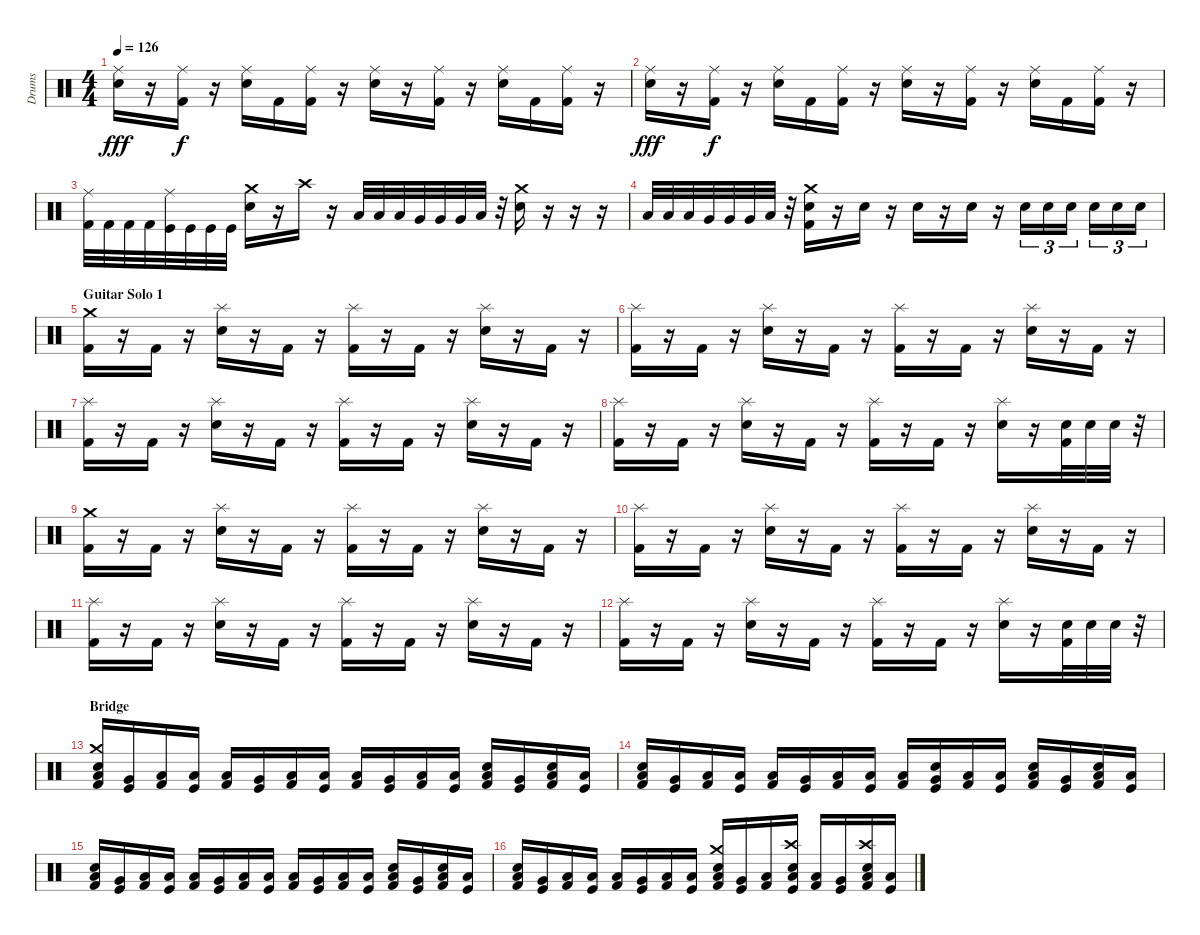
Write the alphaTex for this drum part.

\track ("Drums" "Drums") {instrument percussion}
\staff {score}
\articulation defaults
\ts (4 4)
\tempo 126
\clef neutral
\ks c
("Ride (middle)" "Snare (hit) 2").16{dy fff} r.16 ("Ride (middle)" "Kick (hit) 2").16{dy f} r.16 ("Ride (middle)" "Snare (hit) 2").16 "Kick (hit) 2".16 ("Ride (middle)" "Kick (hit) 2").16 r.16 ("Ride (middle)" "Snare (hit) 2").16 r.16 ("Ride (middle)" "Kick (hit) 2").16 r.16 ("Ride (middle)" "Snare (hit) 2").16 "Kick (hit) 2".16 ("Ride (middle)" "Kick (hit) 2").16 r.16 |
("Ride (middle)" "Snare (hit) 2").16{dy fff} r.16 ("Ride (middle)" "Kick (hit) 2").16{dy f} r.16 ("Ride (middle)" "Snare (hit) 2").16 "Kick (hit) 2".16 ("Ride (middle)" "Kick (hit) 2").16 r.16 ("Ride (middle)" "Snare (hit) 2").16 r.16 ("Ride (middle)" "Kick (hit) 2").16 r.16 ("Ride (middle)" "Snare (hit) 2").16 "Kick (hit) 2".16 ("Ride (middle)" "Kick (hit) 2").16 r.16 |
("Ride (middle)" "Kick (hit) 2").32 "Kick (hit) 2".32 "Kick (hit) 2".32 "Kick (hit) 2".32 ("Ride (middle)" "Kick (hit)").32 "Kick (hit)".32 "Kick (hit)".32 "Kick (hit)".32 ("Crash medium (hit)" "Snare (hit) 2").16 r.16 "Crash high (hit)".16 r.16 "Low Tom (hit)".32 "Low Tom (hit)".32 "Low Tom (hit)".32 "Very Low Tom (hit)".32 "Very Low Tom (hit)".32 "Very Low Tom (hit)".32 "Low Floor Tom (hit)".32 r.32 ("Crash medium (hit)" "Snare (hit) 2").16 r.16 r.16 r.16 |
"Low Tom (hit)".32 "Low Tom (hit)".32 "Low Tom (hit)".32 "Very Low Tom (hit)".32 "Very Low Tom (hit)".32 "Very Low Tom (hit)".32 "Low Floor Tom (hit)".32 r.32 ("Crash medium (hit)" "Snare (hit) 2" "Kick (hit) 2").16 r.16 "Snare (hit) 2".16 r.16 "Snare (hit) 2".16 r.16 "Snare (hit) 2".16 r.16 "Snare (hit) 2".16{tu (3 2)} "Snare (hit) 2".16{tu (3 2)} "Snare (hit) 2".16{tu (3 2)} "Snare (hit) 2".16{tu (3 2)} "Snare (hit) 2".16{tu (3 2)} "Snare (hit) 2".16{tu (3 2)} |
\section ("" "Guitar Solo 1")
("Crash medium (hit)" "Kick (hit) 2").16 r.16 "Kick (hit) 2".16 r.16 ("Splash (hit)" "Snare (hit) 2").16 r.16 "Kick (hit) 2".16 r.16 ("Splash (hit)" "Kick (hit) 2").16 r.16 "Kick (hit) 2".16 r.16 ("Splash (hit)" "Snare (hit) 2").16 r.16 "Kick (hit) 2".16 r.16 |
("Splash (hit)" "Kick (hit) 2").16 r.16 "Kick (hit) 2".16 r.16 ("Splash (hit)" "Snare (hit) 2").16 r.16 "Kick (hit) 2".16 r.16 ("Splash (hit)" "Kick (hit) 2").16 r.16 "Kick (hit) 2".16 r.16 ("Splash (hit)" "Snare (hit) 2").16 r.16 "Kick (hit) 2".16 r.16 |
("Splash (hit)" "Kick (hit) 2").16 r.16 "Kick (hit) 2".16 r.16 ("Splash (hit)" "Snare (hit) 2").16 r.16 "Kick (hit) 2".16 r.16 ("Splash (hit)" "Kick (hit) 2").16 r.16 "Kick (hit) 2".16 r.16 ("Splash (hit)" "Snare (hit) 2").16 r.16 "Kick (hit) 2".16 r.16 |
("Splash (hit)" "Kick (hit) 2").16 r.16 "Kick (hit) 2".16 r.16 ("Splash (hit)" "Snare (hit) 2").16 r.16 "Kick (hit) 2".16 r.16 ("Splash (hit)" "Kick (hit) 2").16 r.16 "Kick (hit) 2".16 r.16 ("Splash (hit)" "Snare (hit) 2").16 r.16 ("Snare (hit) 2" "Kick (hit) 2").32 "Snare (hit) 2".32 "Snare (hit) 2".32 r.32 |
("Crash medium (hit)" "Kick (hit) 2").16 r.16 "Kick (hit) 2".16 r.16 ("Splash (hit)" "Snare (hit) 2").16 r.16 "Kick (hit) 2".16 r.16 ("Splash (hit)" "Kick (hit) 2").16 r.16 "Kick (hit) 2".16 r.16 ("Splash (hit)" "Snare (hit) 2").16 r.16 "Kick (hit) 2".16 r.16 |
("Splash (hit)" "Kick (hit) 2").16 r.16 "Kick (hit) 2".16 r.16 ("Splash (hit)" "Snare (hit) 2").16 r.16 "Kick (hit) 2".16 r.16 ("Splash (hit)" "Kick (hit) 2").16 r.16 "Kick (hit) 2".16 r.16 ("Splash (hit)" "Snare (hit) 2").16 r.16 "Kick (hit) 2".16 r.16 |
("Splash (hit)" "Kick (hit) 2").16 r.16 "Kick (hit) 2".16 r.16 ("Splash (hit)" "Snare (hit) 2").16 r.16 "Kick (hit) 2".16 r.16 ("Splash (hit)" "Kick (hit) 2").16 r.16 "Kick (hit) 2".16 r.16 ("Splash (hit)" "Snare (hit) 2").16 r.16 "Kick (hit) 2".16 r.16 |
("Splash (hit)" "Kick (hit) 2").16 r.16 "Kick (hit) 2".16 r.16 ("Splash (hit)" "Snare (hit) 2").16 r.16 "Kick (hit) 2".16 r.16 ("Splash (hit)" "Kick (hit) 2").16 r.16 "Kick (hit) 2".16 r.16 ("Splash (hit)" "Snare (hit) 2").16 r.16 ("Snare (hit) 2" "Kick (hit) 2").32 "Snare (hit) 2".32 "Snare (hit) 2".32 r.32 |
\section ("" "Bridge")
("Crash medium (hit)" "Low Tom (hit)" "Snare (hit) 2" "Kick (hit) 2").16 ("Very Low Tom (hit)" "Kick (hit)").16 ("Low Floor Tom (hit)" "Kick (hit) 2").16 ("Low Floor Tom (hit)" "Kick (hit)").16 ("Low Tom (hit)" "Kick (hit) 2").16 ("Very Low Tom (hit)" "Kick (hit)").16 ("Low Floor Tom (hit)" "Kick (hit) 2").16 ("Low Floor Tom (hit)" "Kick (hit)").16 ("Low Tom (hit)" "Kick (hit) 2").16 ("Very Low Tom (hit)" "Kick (hit)").16 ("Low Floor Tom (hit)" "Kick (hit) 2").16 ("Low Floor Tom (hit)" "Kick (hit)").16 ("Low Tom (hit)" "Snare (hit) 2" "Kick (hit) 2").16 ("Very Low Tom (hit)" "Kick (hit)").16 ("Low Floor Tom (hit)" "Snare (hit) 2" "Kick (hit) 2").16 ("Low Floor Tom (hit)" "Kick (hit)").16 |
("Low Tom (hit)" "Snare (hit) 2" "Kick (hit) 2").16 ("Very Low Tom (hit)" "Kick (hit)").16 ("Low Floor Tom (hit)" "Kick (hit) 2").16 ("Low Floor Tom (hit)" "Kick (hit)").16 ("Low Tom (hit)" "Kick (hit) 2").16 ("Very Low Tom (hit)" "Kick (hit)").16 ("Low Floor Tom (hit)" "Kick (hit) 2").16 ("Low Floor Tom (hit)" "Kick (hit)").16 ("Low Tom (hit)" "Kick (hit) 2").16 ("Very Low Tom (hit)" "Snare (hit) 2" "Kick (hit)").16 ("Low Floor Tom (hit)" "Kick (hit) 2").16 ("Low Floor Tom (hit)" "Kick (hit)").16 ("Low Tom (hit)" "Snare (hit) 2" "Kick (hit) 2").16 ("Very Low Tom (hit)" "Kick (hit)").16 ("Low Floor Tom (hit)" "Snare (hit) 2" "Kick (hit) 2").16 ("Low Floor Tom (hit)" "Kick (hit)").16 |
("Low Tom (hit)" "Snare (hit) 2" "Kick (hit) 2").16 ("Very Low Tom (hit)" "Kick (hit)").16 ("Low Floor Tom (hit)" "Kick (hit) 2").16 ("Low Floor Tom (hit)" "Kick (hit)").16 ("Low Tom (hit)" "Kick (hit) 2").16 ("Very Low Tom (hit)" "Kick (hit)").16 ("Low Floor Tom (hit)" "Kick (hit) 2").16 ("Low Floor Tom (hit)" "Kick (hit)").16 ("Low Tom (hit)" "Kick (hit) 2").16 ("Very Low Tom (hit)" "Kick (hit)").16 ("Low Floor Tom (hit)" "Kick (hit) 2").16 ("Low Floor Tom (hit)" "Kick (hit)").16 ("Low Tom (hit)" "Snare (hit) 2" "Kick (hit) 2").16 ("Very Low Tom (hit)" "Kick (hit)").16 ("Low Floor Tom (hit)" "Snare (hit) 2" "Kick (hit) 2").16 ("Low Floor Tom (hit)" "Kick (hit)").16 |
("Low Tom (hit)" "Snare (hit) 2" "Kick (hit) 2").16 ("Very Low Tom (hit)" "Kick (hit)").16 ("Low Floor Tom (hit)" "Kick (hit) 2").16 ("Low Floor Tom (hit)" "Kick (hit)").16 ("Low Tom (hit)" "Kick (hit) 2").16 ("Very Low Tom (hit)" "Kick (hit)").16 ("Low Floor Tom (hit)" "Kick (hit) 2").16 ("Low Floor Tom (hit)" "Kick (hit)").16 ("Crash medium (hit)" "Low Tom (hit)" "Snare (hit) 2" "Kick (hit) 2").16 ("Very Low Tom (hit)" "Kick (hit)").16 ("Low Floor Tom (hit)" "Kick (hit) 2").16 ("Crash high (hit)" "Low Floor Tom (hit)" "Snare (hit) 2" "Kick (hit)").16 ("Low Tom (hit)" "Kick (hit) 2").16 ("Very Low Tom (hit)" "Kick (hit)").16 ("Crash high (hit)" "Low Floor Tom (hit)" "Snare (hit) 2" "Kick (hit) 2").16 ("Low Floor Tom (hit)" "Kick (hit)").16
